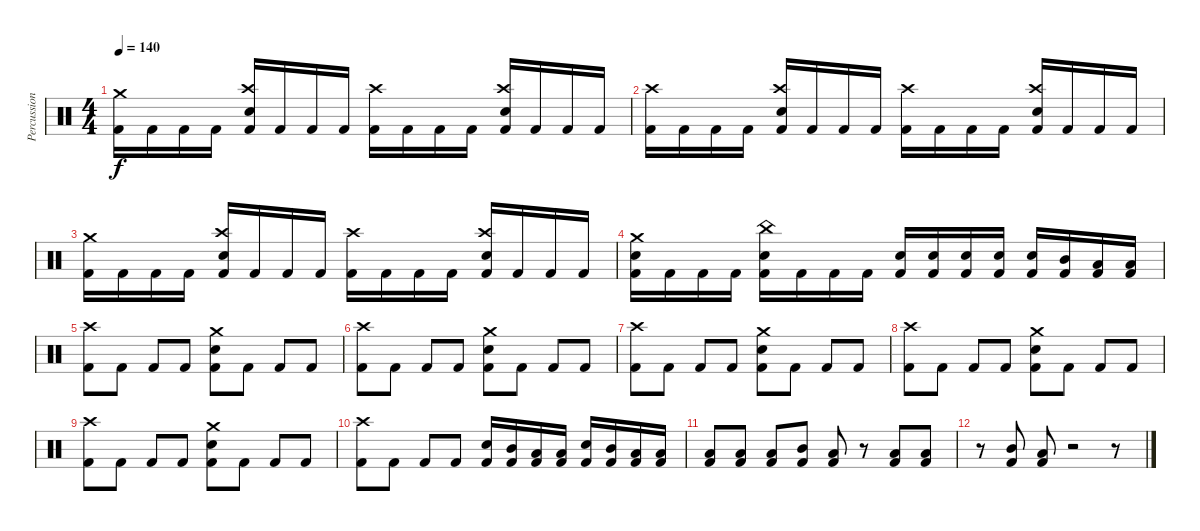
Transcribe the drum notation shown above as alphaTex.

\track ("Percussion" "Percussion") {instrument percussion}
\staff {score}
\articulation defaults
\ts (4 4)
\tempo 140
\clef neutral
\ks c
("Crash medium (hit)" "Kick (hit) 2").16{dy f} "Kick (hit) 2".16 "Kick (hit) 2".16 "Kick (hit) 2".16 ("Crash high (hit)" "Electric Snare (hit)" "Kick (hit) 2").16 "Kick (hit) 2".16 "Kick (hit) 2".16 "Kick (hit) 2".16 ("Crash high (hit)" "Kick (hit) 2").16 "Kick (hit) 2".16 "Kick (hit) 2".16 "Kick (hit) 2".16 ("Crash high (hit)" "Electric Snare (hit)" "Kick (hit) 2").16 "Kick (hit) 2".16 "Kick (hit) 2".16 "Kick (hit) 2".16 |
("Crash high (hit)" "Kick (hit) 2").16 "Kick (hit) 2".16 "Kick (hit) 2".16 "Kick (hit) 2".16 ("Crash high (hit)" "Electric Snare (hit)" "Kick (hit) 2").16 "Kick (hit) 2".16 "Kick (hit) 2".16 "Kick (hit) 2".16 ("Crash high (hit)" "Kick (hit) 2").16 "Kick (hit) 2".16 "Kick (hit) 2".16 "Kick (hit) 2".16 ("Crash high (hit)" "Electric Snare (hit)" "Kick (hit) 2").16 "Kick (hit) 2".16 "Kick (hit) 2".16 "Kick (hit) 2".16 |
("Crash medium (hit)" "Kick (hit) 2").16 "Kick (hit) 2".16 "Kick (hit) 2".16 "Kick (hit) 2".16 ("Crash high (hit)" "Electric Snare (hit)" "Kick (hit) 2").16 "Kick (hit) 2".16 "Kick (hit) 2".16 "Kick (hit) 2".16 ("Crash high (hit)" "Kick (hit) 2").16 "Kick (hit) 2".16 "Kick (hit) 2".16 "Kick (hit) 2".16 ("Crash high (hit)" "Electric Snare (hit)" "Kick (hit) 2").16 "Kick (hit) 2".16 "Kick (hit) 2".16 "Kick (hit) 2".16 |
("Crash medium (hit)" "Electric Snare (hit)" "Kick (hit) 2").16 "Kick (hit) 2".16 "Kick (hit) 2".16 "Kick (hit) 2".16 ("China (hit)" "Electric Snare (hit)" "Kick (hit) 2").16 "Kick (hit) 2".16 "Kick (hit) 2".16 "Kick (hit) 2".16 ("Electric Snare (hit)" "Kick (hit) 2").16 ("Electric Snare (hit)" "Kick (hit) 2").16 ("Electric Snare (hit)" "Kick (hit) 2").16 ("Electric Snare (hit)" "Kick (hit) 2").16 ("Electric Snare (hit)" "Kick (hit) 2").16 ("Mid Tom (hit)" "Kick (hit) 2").16 ("Low Tom (hit)" "Kick (hit) 2").16 ("Low Floor Tom (hit)" "Kick (hit) 2").16 |
("Crash high (hit)" "Kick (hit) 2").8 "Kick (hit) 2".8 "Kick (hit) 2".8 "Kick (hit) 2".8 ("Crash medium (hit)" "Electric Snare (hit)" "Kick (hit) 2").8 "Kick (hit) 2".8 "Kick (hit) 2".8 "Kick (hit) 2".8 |
("Crash high (hit)" "Kick (hit) 2").8 "Kick (hit) 2".8 "Kick (hit) 2".8 "Kick (hit) 2".8 ("Crash medium (hit)" "Electric Snare (hit)" "Kick (hit) 2").8 "Kick (hit) 2".8 "Kick (hit) 2".8 "Kick (hit) 2".8 |
("Crash high (hit)" "Kick (hit) 2").8 "Kick (hit) 2".8 "Kick (hit) 2".8 "Kick (hit) 2".8 ("Crash medium (hit)" "Electric Snare (hit)" "Kick (hit) 2").8 "Kick (hit) 2".8 "Kick (hit) 2".8 "Kick (hit) 2".8 |
("Crash high (hit)" "Kick (hit) 2").8 "Kick (hit) 2".8 "Kick (hit) 2".8 "Kick (hit) 2".8 ("Crash medium (hit)" "Electric Snare (hit)" "Kick (hit) 2").8 "Kick (hit) 2".8 "Kick (hit) 2".8 "Kick (hit) 2".8 |
("Crash high (hit)" "Kick (hit) 2").8 "Kick (hit) 2".8 "Kick (hit) 2".8 "Kick (hit) 2".8 ("Crash medium (hit)" "Electric Snare (hit)" "Kick (hit) 2").8 "Kick (hit) 2".8 "Kick (hit) 2".8 "Kick (hit) 2".8 |
("Crash high (hit)" "Kick (hit) 2").8 "Kick (hit) 2".8 "Kick (hit) 2".8 "Kick (hit) 2".8 ("Electric Snare (hit)" "Kick (hit) 2").16 ("Mid Tom (hit)" "Kick (hit) 2").16 ("Low Tom (hit)" "Kick (hit) 2").16 ("Low Floor Tom (hit)" "Kick (hit) 2").16 ("Electric Snare (hit)" "Kick (hit) 2").16 ("Mid Tom (hit)" "Kick (hit) 2").16 ("Low Tom (hit)" "Kick (hit) 2").16 ("Low Floor Tom (hit)" "Kick (hit) 2").16 |
("Low Floor Tom (hit)" "Kick (hit) 2").8 ("Low Tom (hit)" "Kick (hit) 2").8 ("Low Floor Tom (hit)" "Kick (hit) 2").8 ("Mid Tom (hit)" "Kick (hit) 2").8 ("Low Floor Tom (hit)" "Kick (hit) 2").8 r.8 ("Low Tom (hit)" "Kick (hit) 2").8 ("Low Floor Tom (hit)" "Kick (hit) 2").8 |
r.8 ("Mid Tom (hit)" "Kick (hit) 2").8 ("Low Floor Tom (hit)" "Kick (hit) 2").8 r.2 r.8
